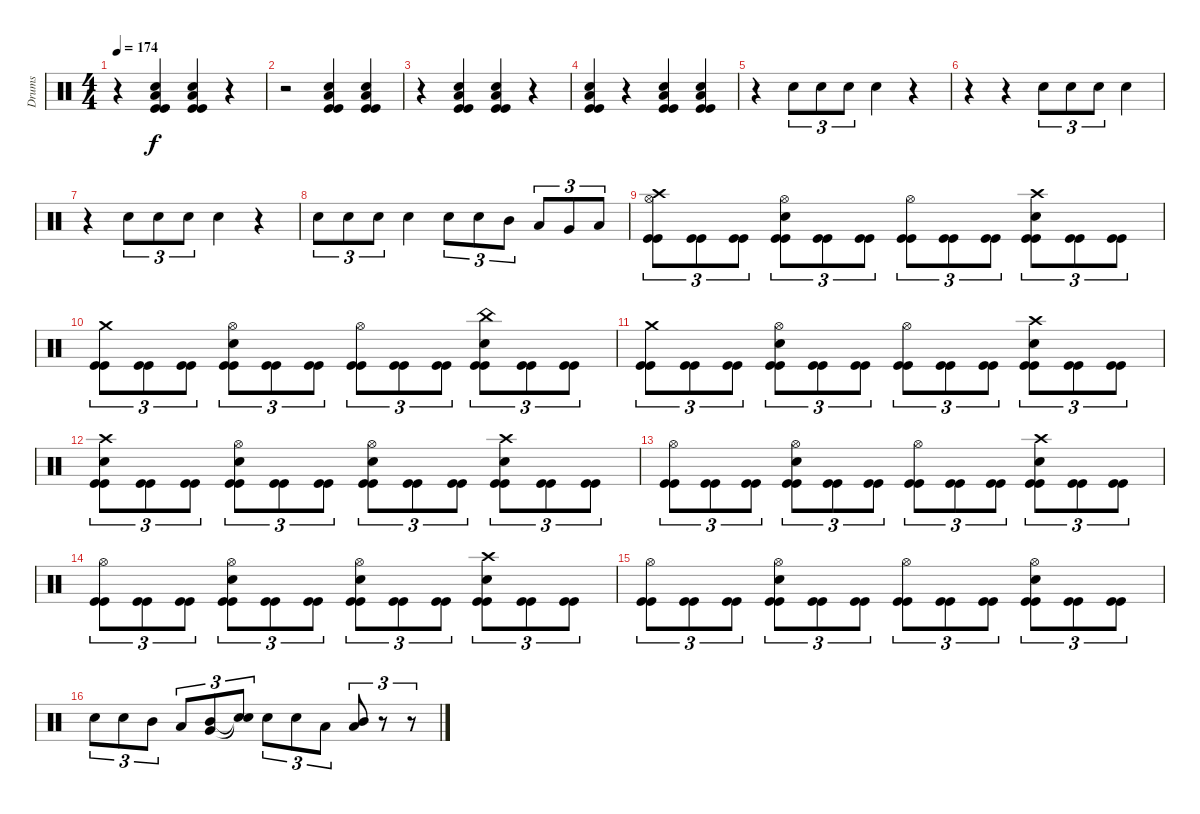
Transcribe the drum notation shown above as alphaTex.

\track ("Drums" "Drums") {instrument percussion}
\staff {score}
\articulation defaults
\ts (4 4)
\tempo 174
\clef neutral
\ks c
r.4{dy f} ("Kick (hit)" "Kick (hit)" "Low Tom (hit)" "Snare (hit) 2").4 ("Kick (hit)" "Kick (hit)" "Low Tom (hit)" "Snare (hit) 2").4 r.4 |
r.2 ("Kick (hit)" "Kick (hit)" "Low Tom (hit)" "Snare (hit) 2").4 ("Kick (hit)" "Kick (hit)" "Low Tom (hit)" "Snare (hit) 2").4 |
r.4 ("Kick (hit)" "Kick (hit)" "Low Tom (hit)" "Snare (hit) 2").4 ("Kick (hit)" "Kick (hit)" "Low Tom (hit)" "Snare (hit) 2").4 r.4 |
("Kick (hit)" "Kick (hit)" "Low Tom (hit)" "Snare (hit) 2").4 r.4 ("Kick (hit)" "Kick (hit)" "Low Tom (hit)" "Snare (hit) 2").4 ("Kick (hit)" "Kick (hit)" "Low Tom (hit)" "Snare (hit) 2").4 |
r.4 "Snare (hit) 2".8{tu (3 2)} "Snare (hit) 2".8{tu (3 2)} "Snare (hit) 2".8{tu (3 2)} "Snare (hit) 2".4 r.4 |
r.4 r.4 "Snare (hit) 2".8{tu (3 2)} "Snare (hit) 2".8{tu (3 2)} "Snare (hit) 2".8{tu (3 2)} "Snare (hit) 2".4 |
r.4 "Snare (hit) 2".8{tu (3 2)} "Snare (hit) 2".8{tu (3 2)} "Snare (hit) 2".8{tu (3 2)} "Snare (hit) 2".4 r.4 |
"Snare (hit) 2".8{tu (3 2)} "Snare (hit) 2".8{tu (3 2)} "Snare (hit) 2".8{tu (3 2)} "Snare (hit) 2".4 "Snare (hit) 2".8{tu (3 2)} "Snare (hit) 2".8{tu (3 2)} "Mid Tom (hit)".8{tu (3 2)} "Low Tom (hit)".8{tu (3 2)} "Very Low Tom (hit)".8{tu (3 2)} "Low Floor Tom (hit)".8{tu (3 2)} |
("Kick (hit)" "Kick (hit)" "Hi-Hat (open)" "Crash high (hit)").8{tu (3 2)} ("Kick (hit)" "Kick (hit)").8{tu (3 2)} ("Kick (hit)" "Kick (hit)").8{tu (3 2)} ("Kick (hit)" "Kick (hit)" "Snare (hit) 2" "Hi-Hat (open)").8{tu (3 2)} ("Kick (hit)" "Kick (hit)").8{tu (3 2)} ("Kick (hit)" "Kick (hit)").8{tu (3 2)} ("Kick (hit)" "Kick (hit)" "Hi-Hat (open)").8{tu (3 2)} ("Kick (hit)" "Kick (hit)").8{tu (3 2)} ("Kick (hit)" "Kick (hit)").8{tu (3 2)} ("Kick (hit)" "Kick (hit)" "Snare (hit) 2" "Crash high (hit)").8{tu (3 2)} ("Kick (hit)" "Kick (hit)").8{tu (3 2)} ("Kick (hit)" "Kick (hit)").8{tu (3 2)} |
("Kick (hit)" "Kick (hit)" "Crash medium (hit)").8{tu (3 2)} ("Kick (hit)" "Kick (hit)").8{tu (3 2)} ("Kick (hit)" "Kick (hit)").8{tu (3 2)} ("Kick (hit)" "Kick (hit)" "Snare (hit) 2" "Hi-Hat (open)").8{tu (3 2)} ("Kick (hit)" "Kick (hit)").8{tu (3 2)} ("Kick (hit)" "Kick (hit)").8{tu (3 2)} ("Kick (hit)" "Kick (hit)" "Hi-Hat (open)").8{tu (3 2)} ("Kick (hit)" "Kick (hit)").8{tu (3 2)} ("Kick (hit)" "Kick (hit)").8{tu (3 2)} ("Kick (hit)" "Kick (hit)" "Snare (hit) 2" "China (hit)").8{tu (3 2)} ("Kick (hit)" "Kick (hit)").8{tu (3 2)} ("Kick (hit)" "Kick (hit)").8{tu (3 2)} |
("Kick (hit)" "Kick (hit)" "Crash medium (hit)").8{tu (3 2)} ("Kick (hit)" "Kick (hit)").8{tu (3 2)} ("Kick (hit)" "Kick (hit)").8{tu (3 2)} ("Kick (hit)" "Kick (hit)" "Snare (hit) 2" "Hi-Hat (open)").8{tu (3 2)} ("Kick (hit)" "Kick (hit)").8{tu (3 2)} ("Kick (hit)" "Kick (hit)").8{tu (3 2)} ("Kick (hit)" "Kick (hit)" "Hi-Hat (open)").8{tu (3 2)} ("Kick (hit)" "Kick (hit)").8{tu (3 2)} ("Kick (hit)" "Kick (hit)").8{tu (3 2)} ("Kick (hit)" "Kick (hit)" "Snare (hit) 2" "Crash high (hit)").8{tu (3 2)} ("Kick (hit)" "Kick (hit)").8{tu (3 2)} ("Kick (hit)" "Kick (hit)").8{tu (3 2)} |
("Kick (hit)" "Kick (hit)" "Snare (hit) 2" "Crash high (hit)").8{tu (3 2)} ("Kick (hit)" "Kick (hit)").8{tu (3 2)} ("Kick (hit)" "Kick (hit)").8{tu (3 2)} ("Kick (hit)" "Kick (hit)" "Snare (hit) 2" "Hi-Hat (open)").8{tu (3 2)} ("Kick (hit)" "Kick (hit)").8{tu (3 2)} ("Kick (hit)" "Kick (hit)").8{tu (3 2)} ("Kick (hit)" "Kick (hit)" "Hi-Hat (open)" "Snare (hit) 2").8{tu (3 2)} ("Kick (hit)" "Kick (hit)").8{tu (3 2)} ("Kick (hit)" "Kick (hit)").8{tu (3 2)} ("Kick (hit)" "Kick (hit)" "Snare (hit) 2" "Crash high (hit)").8{tu (3 2)} ("Kick (hit)" "Kick (hit)").8{tu (3 2)} ("Kick (hit)" "Kick (hit)").8{tu (3 2)} |
("Kick (hit)" "Kick (hit)" "Hi-Hat (open)").8{tu (3 2)} ("Kick (hit)" "Kick (hit)").8{tu (3 2)} ("Kick (hit)" "Kick (hit)").8{tu (3 2)} ("Kick (hit)" "Kick (hit)" "Snare (hit) 2" "Hi-Hat (open)").8{tu (3 2)} ("Kick (hit)" "Kick (hit)").8{tu (3 2)} ("Kick (hit)" "Kick (hit)").8{tu (3 2)} ("Kick (hit)" "Kick (hit)" "Hi-Hat (open)").8{tu (3 2)} ("Kick (hit)" "Kick (hit)").8{tu (3 2)} ("Kick (hit)" "Kick (hit)").8{tu (3 2)} ("Kick (hit)" "Kick (hit)" "Snare (hit) 2" "Crash high (hit)").8{tu (3 2)} ("Kick (hit)" "Kick (hit)").8{tu (3 2)} ("Kick (hit)" "Kick (hit)").8{tu (3 2)} |
("Kick (hit)" "Kick (hit)" "Hi-Hat (open)").8{tu (3 2)} ("Kick (hit)" "Kick (hit)").8{tu (3 2)} ("Kick (hit)" "Kick (hit)").8{tu (3 2)} ("Kick (hit)" "Kick (hit)" "Snare (hit) 2" "Hi-Hat (open)").8{tu (3 2)} ("Kick (hit)" "Kick (hit)").8{tu (3 2)} ("Kick (hit)" "Kick (hit)").8{tu (3 2)} ("Kick (hit)" "Kick (hit)" "Snare (hit) 2" "Hi-Hat (open)").8{tu (3 2)} ("Kick (hit)" "Kick (hit)").8{tu (3 2)} ("Kick (hit)" "Kick (hit)").8{tu (3 2)} ("Kick (hit)" "Kick (hit)" "Snare (hit) 2" "Crash high (hit)").8{tu (3 2)} ("Kick (hit)" "Kick (hit)").8{tu (3 2)} ("Kick (hit)" "Kick (hit)").8{tu (3 2)} |
("Kick (hit)" "Kick (hit)" "Hi-Hat (open)").8{tu (3 2)} ("Kick (hit)" "Kick (hit)").8{tu (3 2)} ("Kick (hit)" "Kick (hit)").8{tu (3 2)} ("Kick (hit)" "Kick (hit)" "Snare (hit) 2" "Hi-Hat (open)").8{tu (3 2)} ("Kick (hit)" "Kick (hit)").8{tu (3 2)} ("Kick (hit)" "Kick (hit)").8{tu (3 2)} ("Kick (hit)" "Kick (hit)" "Hi-Hat (open)").8{tu (3 2)} ("Kick (hit)" "Kick (hit)").8{tu (3 2)} ("Kick (hit)" "Kick (hit)").8{tu (3 2)} ("Kick (hit)" "Kick (hit)" "Snare (hit) 2" "Hi-Hat (open)").8{tu (3 2)} ("Kick (hit)" "Kick (hit)").8{tu (3 2)} ("Kick (hit)" "Kick (hit)").8{tu (3 2)} |
"Snare (hit) 2".8{tu (3 2)} "Snare (hit) 2".8{tu (3 2)} "Mid Tom (hit)".8{tu (3 2)} "Low Tom (hit)".8{tu (3 2)} ("Very Low Tom (hit)" "Mid Tom (hit)").8{tu (3 2)} ("Snare (hit) 2"{t} "Snare (hit)"{t}).8{tu (3 2)} "Snare (hit) 2".8{tu (3 2)} "Snare (hit) 2".8{tu (3 2)} "Low Tom (hit)".8{tu (3 2)} ("Low Floor Tom (hit)" "Mid Tom (hit)").8{tu (3 2)} r.8{tu (3 2)} r.8{tu (3 2)}
